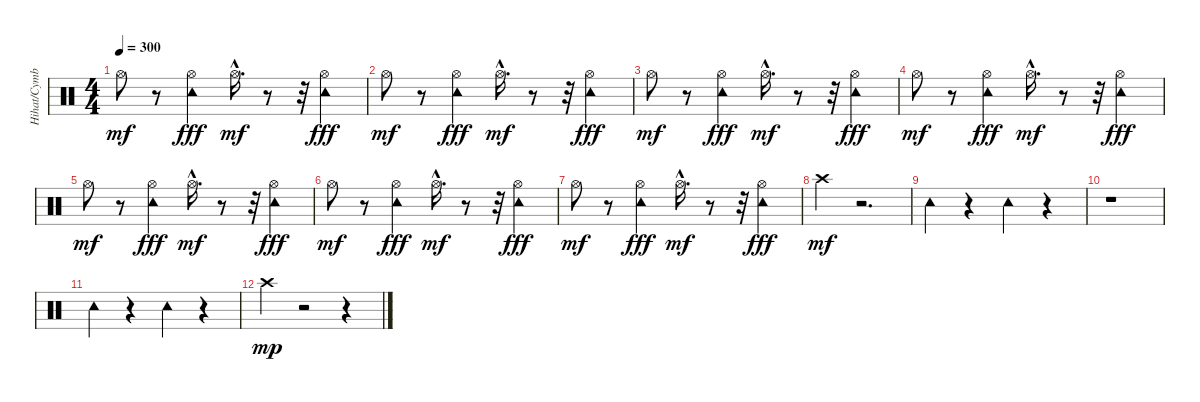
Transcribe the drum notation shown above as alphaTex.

\track ("Hihat/Cymbals/Tambourine" "Hihat/Cymb") {instrument percussion}
\staff {score}
\articulation defaults
\ts (4 4)
\tempo 300
\clef neutral
\ks c "Hi-Hat (open)".8{dy mf}
r.8 ("Hi-Hat (open)" "Tambourine (hit)").4{dy fff} "Hi-Hat (open)"{hac}.16{d dy mf} r.8 r.32 ("Hi-Hat (open)" "Tambourine (hit)").4{dy fff} |
"Hi-Hat (open)".8{dy mf} r.8 ("Hi-Hat (open)" "Tambourine (hit)").4{dy fff} "Hi-Hat (open)"{hac}.16{d dy mf} r.8 r.32 ("Hi-Hat (open)" "Tambourine (hit)").4{dy fff} |
"Hi-Hat (open)".8{dy mf} r.8 ("Hi-Hat (open)" "Tambourine (hit)").4{dy fff} "Hi-Hat (open)"{hac}.16{d dy mf} r.8 r.32 ("Hi-Hat (open)" "Tambourine (hit)").4{dy fff} |
"Hi-Hat (open)".8{dy mf} r.8 ("Hi-Hat (open)" "Tambourine (hit)").4{dy fff} "Hi-Hat (open)"{hac}.16{d dy mf} r.8 r.32 ("Hi-Hat (open)" "Tambourine (hit)").4{dy fff} |
"Hi-Hat (open)".8{dy mf} r.8 ("Hi-Hat (open)" "Tambourine (hit)").4{dy fff} "Hi-Hat (open)"{hac}.16{d dy mf} r.8 r.32 ("Hi-Hat (open)" "Tambourine (hit)").4{dy fff} |
"Hi-Hat (open)".8{dy mf} r.8 ("Hi-Hat (open)" "Tambourine (hit)").4{dy fff} "Hi-Hat (open)"{hac}.16{d dy mf} r.8 r.32 ("Hi-Hat (open)" "Tambourine (hit)").4{dy fff} |
"Hi-Hat (open)".8{dy mf} r.8 ("Hi-Hat (open)" "Tambourine (hit)").4{dy fff} "Hi-Hat (open)"{hac}.16{d dy mf} r.8 r.32 ("Hi-Hat (open)" "Tambourine (hit)").4{dy fff} |
"Crash high (hit)".4{dy mf} r.2{d} |
"Tambourine (hit)".4 r.4 "Tambourine (hit)".4 r.4 |
r.1 |
"Tambourine (hit)".4 r.4 "Tambourine (hit)".4 r.4 |
"Crash high (hit)".4{dy mp} r.2 r.4
